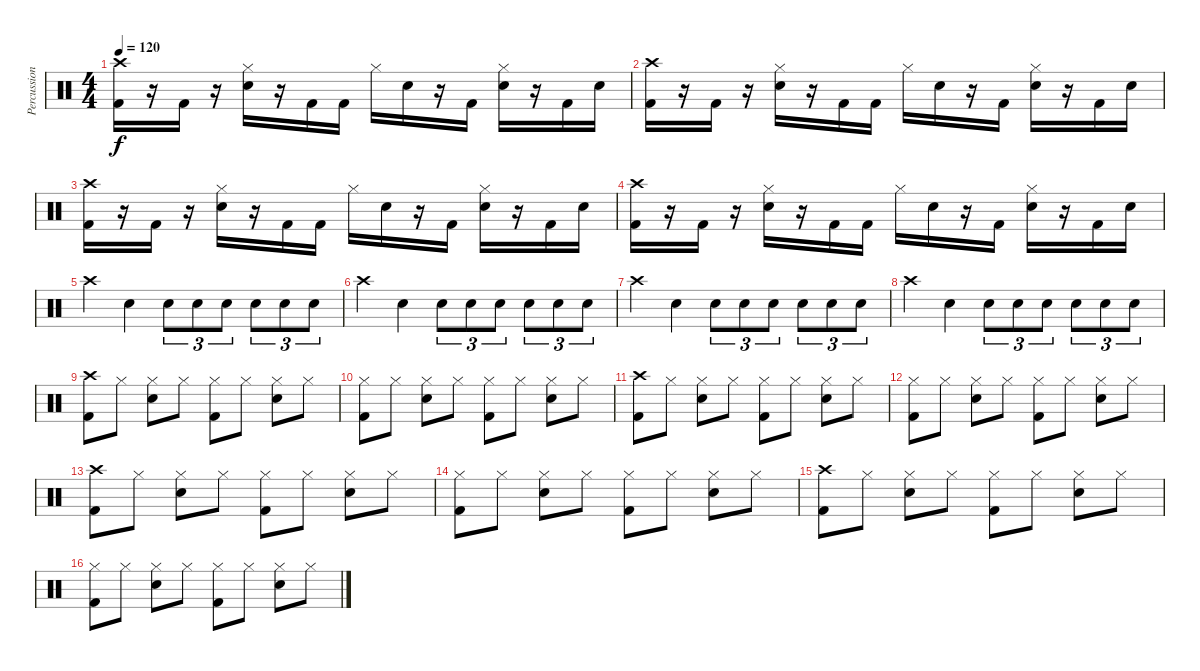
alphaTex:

\track ("Percussion" "Percussion") {instrument percussion}
\staff {score}
\articulation defaults
\ts (4 4)
\tempo 120
\clef neutral
\ks c
("Crash high (hit)" "Kick (hit) 2").16{dy f} r.16 "Kick (hit) 2".16 r.16 ("Hi-Hat (closed)" "Electric Snare (hit)").16 r.16 "Kick (hit) 2".16 "Kick (hit) 2".16 "Hi-Hat (closed)".16 "Electric Snare (hit)".16 r.16 "Kick (hit) 2".16 ("Hi-Hat (closed)" "Electric Snare (hit)").16 r.16 "Kick (hit) 2".16 "Electric Snare (hit)".16 |
("Crash high (hit)" "Kick (hit) 2").16 r.16 "Kick (hit) 2".16 r.16 ("Hi-Hat (closed)" "Electric Snare (hit)").16 r.16 "Kick (hit) 2".16 "Kick (hit) 2".16 "Hi-Hat (closed)".16 "Electric Snare (hit)".16 r.16 "Kick (hit) 2".16 ("Hi-Hat (closed)" "Electric Snare (hit)").16 r.16 "Kick (hit) 2".16 "Electric Snare (hit)".16 |
("Crash high (hit)" "Kick (hit) 2").16 r.16 "Kick (hit) 2".16 r.16 ("Hi-Hat (closed)" "Electric Snare (hit)").16 r.16 "Kick (hit) 2".16 "Kick (hit) 2".16 "Hi-Hat (closed)".16 "Electric Snare (hit)".16 r.16 "Kick (hit) 2".16 ("Hi-Hat (closed)" "Electric Snare (hit)").16 r.16 "Kick (hit) 2".16 "Electric Snare (hit)".16 |
("Crash high (hit)" "Kick (hit) 2").16 r.16 "Kick (hit) 2".16 r.16 ("Hi-Hat (closed)" "Electric Snare (hit)").16 r.16 "Kick (hit) 2".16 "Kick (hit) 2".16 "Hi-Hat (closed)".16 "Electric Snare (hit)".16 r.16 "Kick (hit) 2".16 ("Hi-Hat (closed)" "Electric Snare (hit)").16 r.16 "Kick (hit) 2".16 "Electric Snare (hit)".16 |
"Crash high (hit)".4 "Electric Snare (hit)".4 "Electric Snare (hit)".8{tu (3 2)} "Electric Snare (hit)".8{tu (3 2)} "Electric Snare (hit)".8{tu (3 2)} "Electric Snare (hit)".8{tu (3 2)} "Electric Snare (hit)".8{tu (3 2)} "Electric Snare (hit)".8{tu (3 2)} |
"Crash high (hit)".4 "Electric Snare (hit)".4 "Electric Snare (hit)".8{tu (3 2)} "Electric Snare (hit)".8{tu (3 2)} "Electric Snare (hit)".8{tu (3 2)} "Electric Snare (hit)".8{tu (3 2)} "Electric Snare (hit)".8{tu (3 2)} "Electric Snare (hit)".8{tu (3 2)} |
"Crash high (hit)".4 "Electric Snare (hit)".4 "Electric Snare (hit)".8{tu (3 2)} "Electric Snare (hit)".8{tu (3 2)} "Electric Snare (hit)".8{tu (3 2)} "Electric Snare (hit)".8{tu (3 2)} "Electric Snare (hit)".8{tu (3 2)} "Electric Snare (hit)".8{tu (3 2)} |
"Crash high (hit)".4 "Electric Snare (hit)".4 "Electric Snare (hit)".8{tu (3 2)} "Electric Snare (hit)".8{tu (3 2)} "Electric Snare (hit)".8{tu (3 2)} "Electric Snare (hit)".8{tu (3 2)} "Electric Snare (hit)".8{tu (3 2)} "Electric Snare (hit)".8{tu (3 2)} |
("Crash high (hit)" "Kick (hit) 2").8 "Hi-Hat (closed)".8 ("Hi-Hat (closed)" "Electric Snare (hit)").8 "Hi-Hat (closed)".8 ("Hi-Hat (closed)" "Kick (hit) 2").8 "Hi-Hat (closed)".8 ("Hi-Hat (closed)" "Electric Snare (hit)").8 "Hi-Hat (closed)".8 |
("Hi-Hat (closed)" "Kick (hit) 2").8 "Hi-Hat (closed)".8 ("Hi-Hat (closed)" "Electric Snare (hit)").8 "Hi-Hat (closed)".8 ("Hi-Hat (closed)" "Kick (hit) 2").8 "Hi-Hat (closed)".8 ("Hi-Hat (closed)" "Electric Snare (hit)").8 "Hi-Hat (closed)".8 |
("Crash high (hit)" "Kick (hit) 2").8 "Hi-Hat (closed)".8 ("Hi-Hat (closed)" "Electric Snare (hit)").8 "Hi-Hat (closed)".8 ("Hi-Hat (closed)" "Kick (hit) 2").8 "Hi-Hat (closed)".8 ("Hi-Hat (closed)" "Electric Snare (hit)").8 "Hi-Hat (closed)".8 |
("Hi-Hat (closed)" "Kick (hit) 2").8 "Hi-Hat (closed)".8 ("Hi-Hat (closed)" "Electric Snare (hit)").8 "Hi-Hat (closed)".8 ("Hi-Hat (closed)" "Kick (hit) 2").8 "Hi-Hat (closed)".8 ("Hi-Hat (closed)" "Electric Snare (hit)").8 "Hi-Hat (closed)".8 |
("Crash high (hit)" "Kick (hit) 2").8 "Hi-Hat (closed)".8 ("Hi-Hat (closed)" "Electric Snare (hit)").8 "Hi-Hat (closed)".8 ("Hi-Hat (closed)" "Kick (hit) 2").8 "Hi-Hat (closed)".8 ("Hi-Hat (closed)" "Electric Snare (hit)").8 "Hi-Hat (closed)".8 |
("Hi-Hat (closed)" "Kick (hit) 2").8 "Hi-Hat (closed)".8 ("Hi-Hat (closed)" "Electric Snare (hit)").8 "Hi-Hat (closed)".8 ("Hi-Hat (closed)" "Kick (hit) 2").8 "Hi-Hat (closed)".8 ("Hi-Hat (closed)" "Electric Snare (hit)").8 "Hi-Hat (closed)".8 |
("Crash high (hit)" "Kick (hit) 2").8 "Hi-Hat (closed)".8 ("Hi-Hat (closed)" "Electric Snare (hit)").8 "Hi-Hat (closed)".8 ("Hi-Hat (closed)" "Kick (hit) 2").8 "Hi-Hat (closed)".8 ("Hi-Hat (closed)" "Electric Snare (hit)").8 "Hi-Hat (closed)".8 |
("Hi-Hat (closed)" "Kick (hit) 2").8 "Hi-Hat (closed)".8 ("Hi-Hat (closed)" "Electric Snare (hit)").8 "Hi-Hat (closed)".8 ("Hi-Hat (closed)" "Kick (hit) 2").8 "Hi-Hat (closed)".8 ("Hi-Hat (closed)" "Electric Snare (hit)").8 "Hi-Hat (closed)".8
